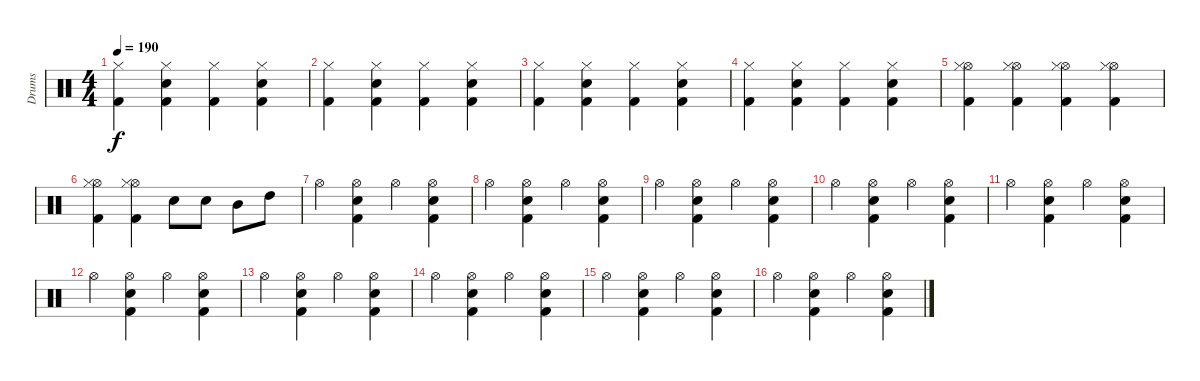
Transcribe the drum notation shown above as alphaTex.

\track ("Drums" "Drums") {instrument percussion}
\staff {score}
\articulation defaults
\ts (4 4)
\tempo 190
\clef neutral
\ks c
("Hi-Hat (closed)" "Kick (hit) 2").4{dy f} ("Hi-Hat (closed)" "Snare (hit) 2" "Kick (hit) 2").4 ("Hi-Hat (closed)" "Kick (hit) 2").4 ("Hi-Hat (closed)" "Snare (hit) 2" "Kick (hit) 2").4 |
("Hi-Hat (closed)" "Kick (hit) 2").4 ("Hi-Hat (closed)" "Snare (hit) 2" "Kick (hit) 2").4 ("Hi-Hat (closed)" "Kick (hit) 2").4 ("Hi-Hat (closed)" "Snare (hit) 2" "Kick (hit) 2").4 |
("Hi-Hat (closed)" "Kick (hit) 2").4 ("Hi-Hat (closed)" "Snare (hit) 2" "Kick (hit) 2").4 ("Hi-Hat (closed)" "Kick (hit) 2").4 ("Hi-Hat (closed)" "Snare (hit) 2" "Kick (hit) 2").4 |
("Hi-Hat (closed)" "Kick (hit) 2").4 ("Hi-Hat (closed)" "Snare (hit) 2" "Kick (hit) 2").4 ("Hi-Hat (closed)" "Kick (hit) 2").4 ("Hi-Hat (closed)" "Snare (hit) 2" "Kick (hit) 2").4 |
("Hi-Hat (open)" "Hi-Hat (closed)" "Kick (hit) 2").4 ("Hi-Hat (open)" "Hi-Hat (closed)" "Kick (hit) 2").4 ("Hi-Hat (open)" "Hi-Hat (closed)" "Kick (hit) 2").4 ("Hi-Hat (open)" "Hi-Hat (closed)" "Kick (hit) 2").4 |
("Hi-Hat (open)" "Hi-Hat (closed)" "Kick (hit) 2").4 ("Hi-Hat (open)" "Hi-Hat (closed)" "Kick (hit) 2").4 "Snare (hit) 2".8 "Snare (hit) 2".8 "Mid Tom (hit)".8 "High Tom (hit)".8 |
"Hi-Hat (open)".4 ("Hi-Hat (open)" "Snare (hit) 2" "Kick (hit) 2").4 "Hi-Hat (open)".4 ("Hi-Hat (open)" "Snare (hit) 2" "Kick (hit) 2").4 |
"Hi-Hat (open)".4 ("Hi-Hat (open)" "Snare (hit) 2" "Kick (hit) 2").4 "Hi-Hat (open)".4 ("Hi-Hat (open)" "Snare (hit) 2" "Kick (hit) 2").4 |
"Hi-Hat (open)".4 ("Hi-Hat (open)" "Snare (hit) 2" "Kick (hit) 2").4 "Hi-Hat (open)".4 ("Hi-Hat (open)" "Snare (hit) 2" "Kick (hit) 2").4 |
"Hi-Hat (open)".4 ("Hi-Hat (open)" "Snare (hit) 2" "Kick (hit) 2").4 "Hi-Hat (open)".4 ("Hi-Hat (open)" "Snare (hit) 2" "Kick (hit) 2").4 |
"Hi-Hat (open)".4 ("Hi-Hat (open)" "Snare (hit) 2" "Kick (hit) 2").4 "Hi-Hat (open)".4 ("Hi-Hat (open)" "Snare (hit) 2" "Kick (hit) 2").4 |
"Hi-Hat (open)".4 ("Hi-Hat (open)" "Snare (hit) 2" "Kick (hit) 2").4 "Hi-Hat (open)".4 ("Hi-Hat (open)" "Snare (hit) 2" "Kick (hit) 2").4 |
"Hi-Hat (open)".4 ("Hi-Hat (open)" "Snare (hit) 2" "Kick (hit) 2").4 "Hi-Hat (open)".4 ("Hi-Hat (open)" "Snare (hit) 2" "Kick (hit) 2").4 |
"Hi-Hat (open)".4 ("Hi-Hat (open)" "Snare (hit) 2" "Kick (hit) 2").4 "Hi-Hat (open)".4 ("Hi-Hat (open)" "Snare (hit) 2" "Kick (hit) 2").4 |
"Hi-Hat (open)".4 ("Hi-Hat (open)" "Snare (hit) 2" "Kick (hit) 2").4 "Hi-Hat (open)".4 ("Hi-Hat (open)" "Snare (hit) 2" "Kick (hit) 2").4 |
"Hi-Hat (open)".4 ("Hi-Hat (open)" "Snare (hit) 2" "Kick (hit) 2").4 "Hi-Hat (open)".4 ("Hi-Hat (open)" "Snare (hit) 2" "Kick (hit) 2").4
